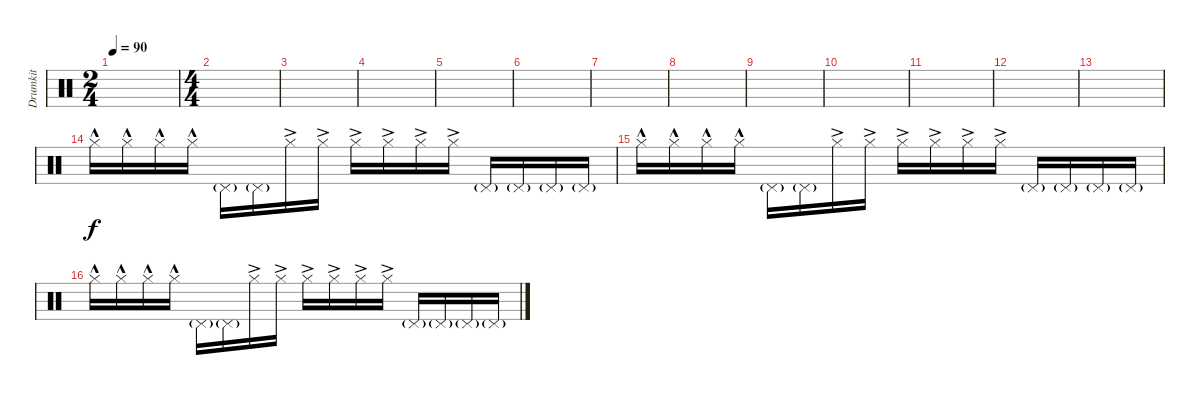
\track ("Drumkit" "Drumkit") {instrument percussion}
\staff {score}
\articulation defaults
\ts (2 4)
\tempo 90
\clef neutral
\ks c
|
\ts (4 4)
|
|
|
|
|
|
|
|
|
|
|
|
"Hi-Hat (closed)"{hac}.16 "Hi-Hat (closed)"{hac}.16 "Hi-Hat (closed)"{hac}.16 "Hi-Hat (closed)"{hac}.16 "Pedal Hi-Hat (hit)"{g}.16 "Pedal Hi-Hat (hit)"{g}.16 "Hi-Hat (closed)"{ac}.16 "Hi-Hat (closed)"{ac}.16 "Hi-Hat (closed)"{ac}.16 "Hi-Hat (closed)"{ac}.16 "Hi-Hat (closed)"{ac}.16 "Hi-Hat (closed)"{ac}.16 "Pedal Hi-Hat (hit)"{g}.16 "Pedal Hi-Hat (hit)"{g}.16 "Pedal Hi-Hat (hit)"{g}.16 "Pedal Hi-Hat (hit)"{g}.16 |
"Hi-Hat (closed)"{hac}.16 "Hi-Hat (closed)"{hac}.16 "Hi-Hat (closed)"{hac}.16 "Hi-Hat (closed)"{hac}.16 "Pedal Hi-Hat (hit)"{g}.16 "Pedal Hi-Hat (hit)"{g}.16 "Hi-Hat (closed)"{ac}.16 "Hi-Hat (closed)"{ac}.16 "Hi-Hat (closed)"{ac}.16 "Hi-Hat (closed)"{ac}.16 "Hi-Hat (closed)"{ac}.16 "Hi-Hat (closed)"{ac}.16 "Pedal Hi-Hat (hit)"{g}.16 "Pedal Hi-Hat (hit)"{g}.16 "Pedal Hi-Hat (hit)"{g}.16 "Pedal Hi-Hat (hit)"{g}.16 |
"Hi-Hat (closed)"{hac}.16 "Hi-Hat (closed)"{hac}.16 "Hi-Hat (closed)"{hac}.16 "Hi-Hat (closed)"{hac}.16 "Pedal Hi-Hat (hit)"{g}.16 "Pedal Hi-Hat (hit)"{g}.16 "Hi-Hat (closed)"{ac}.16 "Hi-Hat (closed)"{ac}.16 "Hi-Hat (closed)"{ac}.16 "Hi-Hat (closed)"{ac}.16 "Hi-Hat (closed)"{ac}.16 "Hi-Hat (closed)"{ac}.16 "Pedal Hi-Hat (hit)"{g}.16 "Pedal Hi-Hat (hit)"{g}.16 "Pedal Hi-Hat (hit)"{g}.16 "Pedal Hi-Hat (hit)"{g}.16
